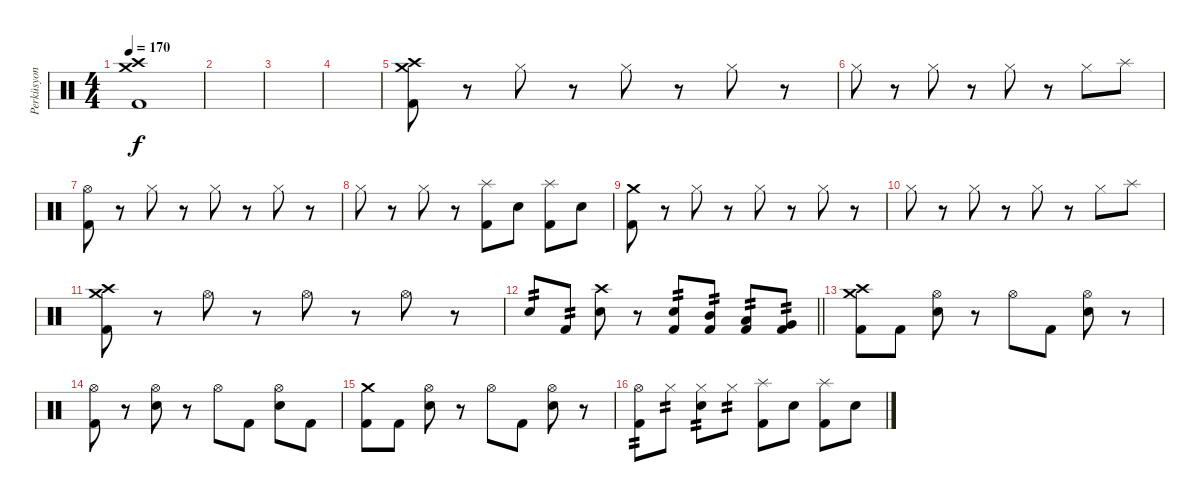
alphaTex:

\track ("Perküsyon" "Perküsyon") {instrument percussion}
\staff {score}
\articulation defaults
\ts (4 4)
\tempo 170
\clef neutral
\ks c
("Crash high (hit)" "Crash medium (hit)" "Kick (hit) 2").1{dy f} |
|
|
|
("Crash medium (hit)" "Crash high (hit)" "Kick (hit) 2").8 r.8 "Hi-Hat (closed)".8 r.8 "Hi-Hat (closed)".8 r.8 "Hi-Hat (closed)".8 r.8 |
"Hi-Hat (closed)".8 r.8 "Hi-Hat (closed)".8 r.8 "Hi-Hat (closed)".8 r.8 "Hi-Hat (closed)".8 "Splash (hit)".8 |
("Hi-Hat (open)" "Kick (hit) 2").8 r.8 "Hi-Hat (closed)".8 r.8 "Hi-Hat (closed)".8 r.8 "Hi-Hat (closed)".8 r.8 |
"Hi-Hat (closed)".8 r.8 "Hi-Hat (closed)".8 r.8 ("Splash (hit)" "Kick (hit) 2").8 "Snare (hit) 2".8 ("Splash (hit)" "Kick (hit) 2").8 "Snare (hit) 2".8 |
("Crash medium (hit)" "Kick (hit) 2").8 r.8 "Hi-Hat (closed)".8 r.8 "Hi-Hat (closed)".8 r.8 "Hi-Hat (closed)".8 r.8 |
"Hi-Hat (closed)".8 r.8 "Hi-Hat (closed)".8 r.8 "Hi-Hat (closed)".8 r.8 "Hi-Hat (closed)".8 "Splash (hit)".8 |
("Crash high (hit)" "Crash medium (hit)" "Kick (hit) 2").8 r.8 "Hi-Hat (open)".8 r.8 "Hi-Hat (open)".8 r.8 "Hi-Hat (open)".8 r.8 |
\barLineRight lightlight "Snare (hit) 2".8{tp 2} "Kick (hit) 2".8{tp 2}
("Crash high (hit)" "Snare (hit) 2").8 r.8 ("Snare (hit) 2" "Kick (hit) 2").8{tp 2} ("Mid Tom (hit)" "Kick (hit) 2").8{tp 2} ("Low Tom (hit)" "Kick (hit) 2").8{tp 2} ("Very Low Tom (hit)" "Kick (hit) 2").8{tp 2} |
\section ("" "")
("Crash high (hit)" "Crash medium (hit)" "Kick (hit) 2").8 "Kick (hit) 2".8 ("Hi-Hat (open)" "Snare (hit) 2").8 r.8 "Hi-Hat (open)".8 "Kick (hit) 2".8 ("Hi-Hat (open)" "Snare (hit) 2").8 r.8 |
("Hi-Hat (open)" "Kick (hit) 2").8 r.8 ("Hi-Hat (open)" "Snare (hit) 2").8 r.8 "Hi-Hat (open)".8 "Kick (hit) 2".8 ("Hi-Hat (open)" "Snare (hit) 2").8 "Kick (hit) 2".8 |
("Crash medium (hit)" "Kick (hit) 2").8 "Kick (hit) 2".8 ("Hi-Hat (open)" "Snare (hit) 2").8 r.8 "Hi-Hat (open)".8 "Kick (hit) 2".8 ("Hi-Hat (open)" "Snare (hit) 2").8 r.8 |
("Hi-Hat (open)" "Kick (hit) 2").8{tp 2} "Hi-Hat (closed)".8{tp 2} ("Hi-Hat (closed)" "Snare (hit) 2").8{tp 2} "Hi-Hat (closed)".8{tp 2} ("Splash (hit)" "Kick (hit) 2").8 "Snare (hit) 2".8 ("Splash (hit)" "Kick (hit) 2").8 "Snare (hit) 2".8
